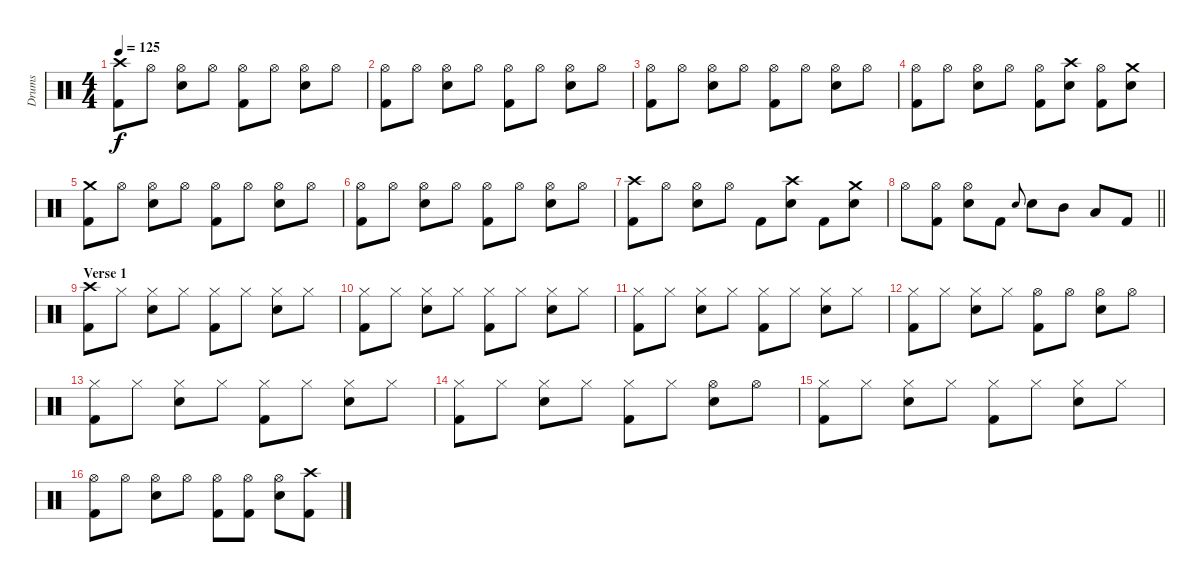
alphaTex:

\track ("Drums" "Drums") {instrument percussion}
\staff {score}
\articulation defaults
\ts (4 4)
\tempo 125
\clef neutral
\ks c
("Crash high (hit)" "Kick (hit) 2").8{dy f} "Hi-Hat (open)".8 ("Hi-Hat (open)" "Electric Snare (hit)").8 "Hi-Hat (open)".8 ("Hi-Hat (open)" "Kick (hit) 2").8 "Hi-Hat (open)".8 ("Hi-Hat (open)" "Electric Snare (hit)").8 "Hi-Hat (open)".8 |
("Hi-Hat (open)" "Kick (hit) 2").8 "Hi-Hat (open)".8 ("Hi-Hat (open)" "Electric Snare (hit)").8 "Hi-Hat (open)".8 ("Hi-Hat (open)" "Kick (hit) 2").8 "Hi-Hat (open)".8 ("Hi-Hat (open)" "Electric Snare (hit)").8 "Hi-Hat (open)".8 |
("Hi-Hat (open)" "Kick (hit) 2").8 "Hi-Hat (open)".8 ("Hi-Hat (open)" "Electric Snare (hit)").8 "Hi-Hat (open)".8 ("Hi-Hat (open)" "Kick (hit) 2").8 "Hi-Hat (open)".8 ("Hi-Hat (open)" "Electric Snare (hit)").8 "Hi-Hat (open)".8 |
("Hi-Hat (open)" "Kick (hit) 2").8 "Hi-Hat (open)".8 ("Hi-Hat (open)" "Electric Snare (hit)").8 "Hi-Hat (open)".8 ("Hi-Hat (open)" "Kick (hit) 2").8 ("Crash high (hit)" "Electric Snare (hit)").8 ("Hi-Hat (open)" "Kick (hit) 2").8 ("Crash medium (hit)" "Electric Snare (hit)").8 |
("Crash medium (hit)" "Kick (hit) 2").8 "Hi-Hat (open)".8 ("Hi-Hat (open)" "Electric Snare (hit)").8 "Hi-Hat (open)".8 ("Hi-Hat (open)" "Kick (hit) 2").8 "Hi-Hat (open)".8 ("Hi-Hat (open)" "Electric Snare (hit)").8 "Hi-Hat (open)".8 |
("Hi-Hat (open)" "Kick (hit) 2").8 "Hi-Hat (open)".8 ("Hi-Hat (open)" "Electric Snare (hit)").8 "Hi-Hat (open)".8 ("Hi-Hat (open)" "Kick (hit) 2").8 "Hi-Hat (open)".8 ("Hi-Hat (open)" "Electric Snare (hit)").8 "Hi-Hat (open)".8 |
("Crash high (hit)" "Kick (hit) 2").8 "Hi-Hat (open)".8 ("Hi-Hat (open)" "Electric Snare (hit)").8 "Hi-Hat (open)".8 "Kick (hit) 2".8 ("Crash high (hit)" "Electric Snare (hit)").8 "Kick (hit) 2".8 ("Crash medium (hit)" "Electric Snare (hit)").8 |
\barLineRight lightlight "Hi-Hat (open)".8
("Hi-Hat (open)" "Kick (hit) 2").8 ("Hi-Hat (open)" "Electric Snare (hit)").8 "Kick (hit) 2".8 "Electric Snare (hit)".8{gr onbeat} "Electric Snare (hit)".8 "Mid Tom (hit)".8 "Low Tom (hit)".8 "Kick (hit) 2".8 |
\section ("" "Verse 1")
("Crash high (hit)" "Kick (hit) 2").8 "Hi-Hat (closed)".8 ("Hi-Hat (closed)" "Electric Snare (hit)").8 "Hi-Hat (closed)".8 ("Hi-Hat (closed)" "Kick (hit) 2").8 "Hi-Hat (closed)".8 ("Hi-Hat (closed)" "Electric Snare (hit)").8 "Hi-Hat (closed)".8 |
("Hi-Hat (closed)" "Kick (hit) 2").8 "Hi-Hat (closed)".8 ("Hi-Hat (closed)" "Electric Snare (hit)").8 "Hi-Hat (closed)".8 ("Hi-Hat (closed)" "Kick (hit) 2").8 "Hi-Hat (closed)".8 ("Hi-Hat (closed)" "Electric Snare (hit)").8 "Hi-Hat (closed)".8 |
("Hi-Hat (closed)" "Kick (hit) 2").8 "Hi-Hat (closed)".8 ("Hi-Hat (closed)" "Electric Snare (hit)").8 "Hi-Hat (closed)".8 ("Hi-Hat (closed)" "Kick (hit) 2").8 "Hi-Hat (closed)".8 ("Hi-Hat (closed)" "Electric Snare (hit)").8 "Hi-Hat (closed)".8 |
("Hi-Hat (closed)" "Kick (hit) 2").8 "Hi-Hat (closed)".8 ("Hi-Hat (closed)" "Electric Snare (hit)").8 "Hi-Hat (closed)".8 ("Hi-Hat (open)" "Kick (hit) 2").8 "Hi-Hat (open)".8 ("Hi-Hat (open)" "Electric Snare (hit)").8 "Hi-Hat (open)".8 |
("Hi-Hat (closed)" "Kick (hit) 2").8 "Hi-Hat (closed)".8 ("Hi-Hat (closed)" "Electric Snare (hit)").8 "Hi-Hat (closed)".8 ("Hi-Hat (closed)" "Kick (hit) 2").8 "Hi-Hat (closed)".8 ("Hi-Hat (closed)" "Electric Snare (hit)").8 "Hi-Hat (closed)".8 |
("Hi-Hat (closed)" "Kick (hit) 2").8 "Hi-Hat (closed)".8 ("Hi-Hat (closed)" "Electric Snare (hit)").8 "Hi-Hat (closed)".8 ("Hi-Hat (closed)" "Kick (hit) 2").8 "Hi-Hat (closed)".8 ("Hi-Hat (open)" "Electric Snare (hit)").8 "Hi-Hat (open)".8 |
("Hi-Hat (closed)" "Kick (hit) 2").8 "Hi-Hat (closed)".8 ("Hi-Hat (closed)" "Electric Snare (hit)").8 "Hi-Hat (closed)".8 ("Hi-Hat (closed)" "Kick (hit) 2").8 "Hi-Hat (closed)".8 ("Hi-Hat (closed)" "Electric Snare (hit)").8 "Hi-Hat (closed)".8 |
("Hi-Hat (open)" "Kick (hit) 2").8 "Hi-Hat (open)".8 ("Hi-Hat (open)" "Electric Snare (hit)").8 "Hi-Hat (open)".8 ("Hi-Hat (open)" "Kick (hit) 2").8 ("Hi-Hat (open)" "Kick (hit) 2").8 ("Hi-Hat (open)" "Electric Snare (hit)").8 ("Crash high (hit)" "Kick (hit) 2").8
